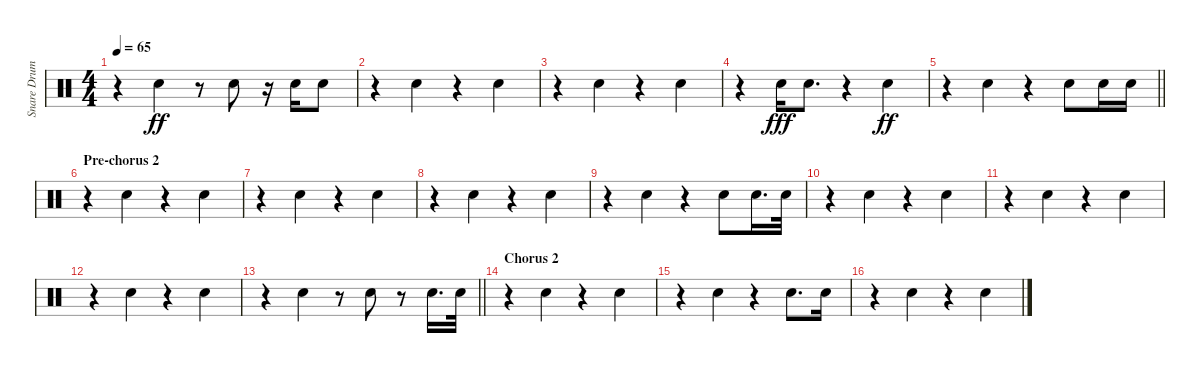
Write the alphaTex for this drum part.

\track ("Snare Drum" "Snare Drum") {instrument percussion}
\staff {score}
\articulation defaults
\ts (4 4)
\tempo 65
\clef neutral
\ks c
r.4{dy ff beam merge} "Electric Snare (hit)".4 r.8 "Electric Snare (hit)".8 r.16 "Electric Snare (hit)".16 "Electric Snare (hit)".8 |
r.4 "Electric Snare (hit)".4 r.4 "Electric Snare (hit)".4 |
r.4 "Electric Snare (hit)".4 r.4 "Electric Snare (hit)".4 |
r.4{beam merge} "Electric Snare (hit)".16{dy fff} "Electric Snare (hit)".8{d} r.4{beam merge} "Electric Snare (hit)".4{dy ff} |
\barLineRight lightlight
r.4{beam merge} "Electric Snare (hit)".4 r.4{beam split} "Electric Snare (hit)".8 "Electric Snare (hit)".16 "Electric Snare (hit)".16 |
\section ("" "Pre-chorus 2")
r.4 "Electric Snare (hit)".4 r.4 "Electric Snare (hit)".4 |
r.4 "Electric Snare (hit)".4 r.4 "Electric Snare (hit)".4 |
r.4 "Electric Snare (hit)".4 r.4 "Electric Snare (hit)".4 |
r.4 "Electric Snare (hit)".4 r.4 "Electric Snare (hit)".8 "Electric Snare (hit)".16{d} "Electric Snare (hit)".32 |
r.4 "Electric Snare (hit)".4 r.4 "Electric Snare (hit)".4 |
r.4 "Electric Snare (hit)".4 r.4 "Electric Snare (hit)".4 |
r.4 "Electric Snare (hit)".4 r.4 "Electric Snare (hit)".4 |
\barLineRight lightlight
r.4 "Electric Snare (hit)".4 r.8 "Electric Snare (hit)".8 r.8{beam splitsecondary} "Electric Snare (hit)".16{d} "Electric Snare (hit)".32 |
\section ("" "Chorus 2")
r.4 "Electric Snare (hit)".4 r.4 "Electric Snare (hit)".4 |
r.4 "Electric Snare (hit)".4 r.4 "Electric Snare (hit)".8{d} "Electric Snare (hit)".16 |
r.4 "Electric Snare (hit)".4 r.4 "Electric Snare (hit)".4
